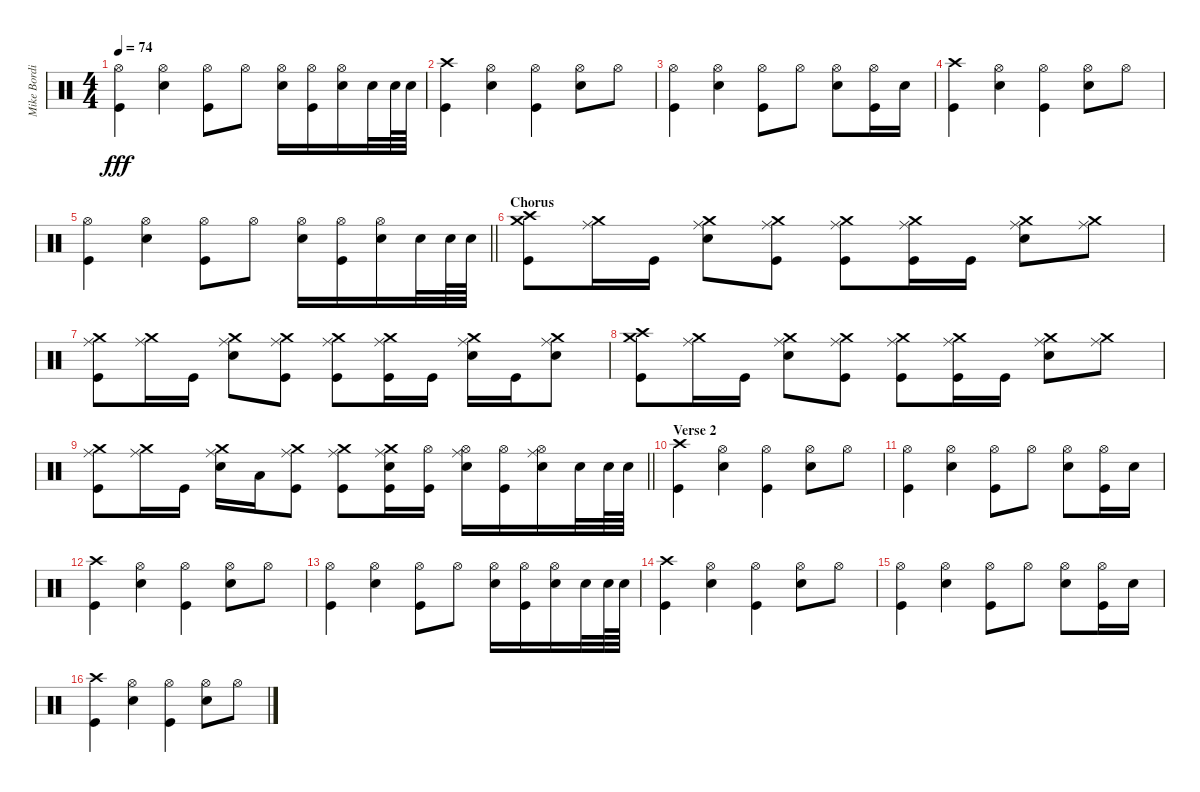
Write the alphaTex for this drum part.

\track ("Mike Bordin" "Mike Bordi") {instrument percussion}
\staff {score}
\articulation defaults
\ts (4 4)
\tempo 74
\clef neutral
\ks c
("Hi-Hat (open)" "Kick (hit)").4{dy fff} ("Hi-Hat (open)" "Snare (hit) 2").4 ("Hi-Hat (open)" "Kick (hit)").8 "Hi-Hat (open)".8 ("Hi-Hat (open)" "Snare (hit) 2").16 ("Hi-Hat (open)" "Kick (hit)").16 ("Hi-Hat (open)" "Snare (hit) 2").16 "Snare (hit) 2".32 "Snare (hit) 2".64 "Snare (hit) 2".64 |
("Crash high (hit)" "Kick (hit)").4 ("Hi-Hat (open)" "Snare (hit) 2").4 ("Hi-Hat (open)" "Kick (hit)").4 ("Hi-Hat (open)" "Snare (hit) 2").8 "Hi-Hat (open)".8 |
("Hi-Hat (open)" "Kick (hit)").4 ("Hi-Hat (open)" "Snare (hit) 2").4 ("Hi-Hat (open)" "Kick (hit)").8 "Hi-Hat (open)".8 ("Hi-Hat (open)" "Snare (hit) 2").8 ("Hi-Hat (open)" "Kick (hit)").16 "Snare (hit) 2".16 |
("Crash high (hit)" "Kick (hit)").4 ("Hi-Hat (open)" "Snare (hit) 2").4 ("Hi-Hat (open)" "Kick (hit)").4 ("Hi-Hat (open)" "Snare (hit) 2").8 "Hi-Hat (open)".8 |
\barLineRight lightlight
("Hi-Hat (open)" "Kick (hit)").4 ("Hi-Hat (open)" "Snare (hit) 2").4 ("Hi-Hat (open)" "Kick (hit)").8 "Hi-Hat (open)".8 ("Hi-Hat (open)" "Snare (hit) 2").16 ("Hi-Hat (open)" "Kick (hit)").16 ("Hi-Hat (open)" "Snare (hit) 2").16 "Snare (hit) 2".32 "Snare (hit) 2".64 "Snare (hit) 2".64 |
\section ("" "Chorus")
("Crash medium (hit)" "Crash high (hit)" "Kick (hit)").8 ("Crash medium (hit)" "Ride (middle)").16 "Kick (hit)".16 ("Crash medium (hit)" "Ride (middle)" "Snare (hit) 2").8 ("Crash medium (hit)" "Ride (middle)" "Kick (hit)").8 ("Crash medium (hit)" "Ride (middle)" "Kick (hit)").8 ("Crash medium (hit)" "Ride (middle)" "Kick (hit)").16 "Kick (hit)".16 ("Crash medium (hit)" "Ride (middle)" "Snare (hit) 2").8 ("Crash medium (hit)" "Ride (middle)").8 |
("Crash medium (hit)" "Ride (middle)" "Kick (hit)").8 ("Crash medium (hit)" "Ride (middle)").16 "Kick (hit)".16 ("Crash medium (hit)" "Ride (middle)" "Snare (hit) 2").8 ("Crash medium (hit)" "Ride (middle)" "Kick (hit)").8 ("Crash medium (hit)" "Ride (middle)" "Kick (hit)").8 ("Crash medium (hit)" "Ride (middle)" "Kick (hit)").16 "Kick (hit)".16 ("Crash medium (hit)" "Ride (middle)" "Snare (hit) 2").16 "Kick (hit)".16 ("Crash medium (hit)" "Ride (middle)" "Snare (hit) 2").8 |
("Crash medium (hit)" "Crash high (hit)" "Kick (hit)").8 ("Crash medium (hit)" "Ride (middle)").16 "Kick (hit)".16 ("Crash medium (hit)" "Ride (middle)" "Snare (hit) 2").8 ("Crash medium (hit)" "Ride (middle)" "Kick (hit)").8 ("Crash medium (hit)" "Ride (middle)" "Kick (hit)").8 ("Crash medium (hit)" "Ride (middle)" "Kick (hit)").16 "Kick (hit)".16 ("Crash medium (hit)" "Ride (middle)" "Snare (hit) 2").8 ("Crash medium (hit)" "Ride (middle)").8 |
\barLineRight lightlight
("Crash medium (hit)" "Ride (middle)" "Kick (hit)").8 ("Crash medium (hit)" "Ride (middle)").16 "Kick (hit)".16 ("Crash medium (hit)" "Ride (middle)" "Snare (hit) 2").16 "Low Tom (hit)".16 ("Crash medium (hit)" "Ride (middle)" "Kick (hit)").8 ("Crash medium (hit)" "Ride (middle)" "Kick (hit)").8 ("Crash medium (hit)" "Ride (middle)" "Snare (hit) 2" "Kick (hit)").16 ("Hi-Hat (open)" "Kick (hit)").16 ("Hi-Hat (open)" "Ride (middle)" "Snare (hit) 2").16 ("Hi-Hat (open)" "Kick (hit)").16 ("Hi-Hat (open)" "Ride (middle)" "Snare (hit) 2").16 "Snare (hit) 2".32 "Snare (hit) 2".64 "Snare (hit) 2".64 |
\section ("" "Verse 2")
("Crash high (hit)" "Kick (hit)").4 ("Hi-Hat (open)" "Snare (hit) 2").4 ("Hi-Hat (open)" "Kick (hit)").4 ("Hi-Hat (open)" "Snare (hit) 2").8 "Hi-Hat (open)".8 |
("Hi-Hat (open)" "Kick (hit)").4 ("Hi-Hat (open)" "Snare (hit) 2").4 ("Hi-Hat (open)" "Kick (hit)").8 "Hi-Hat (open)".8 ("Hi-Hat (open)" "Snare (hit) 2").8 ("Hi-Hat (open)" "Kick (hit)").16 "Snare (hit) 2".16 |
("Crash high (hit)" "Kick (hit)").4 ("Hi-Hat (open)" "Snare (hit) 2").4 ("Hi-Hat (open)" "Kick (hit)").4 ("Hi-Hat (open)" "Snare (hit) 2").8 "Hi-Hat (open)".8 |
("Hi-Hat (open)" "Kick (hit)").4 ("Hi-Hat (open)" "Snare (hit) 2").4 ("Hi-Hat (open)" "Kick (hit)").8 "Hi-Hat (open)".8 ("Hi-Hat (open)" "Snare (hit) 2").16 ("Hi-Hat (open)" "Kick (hit)").16 ("Hi-Hat (open)" "Snare (hit) 2").16 "Snare (hit) 2".32 "Snare (hit) 2".64 "Snare (hit) 2".64 |
("Crash high (hit)" "Kick (hit)").4 ("Hi-Hat (open)" "Snare (hit) 2").4 ("Hi-Hat (open)" "Kick (hit)").4 ("Hi-Hat (open)" "Snare (hit) 2").8 "Hi-Hat (open)".8 |
("Hi-Hat (open)" "Kick (hit)").4 ("Hi-Hat (open)" "Snare (hit) 2").4 ("Hi-Hat (open)" "Kick (hit)").8 "Hi-Hat (open)".8 ("Hi-Hat (open)" "Snare (hit) 2").8 ("Hi-Hat (open)" "Kick (hit)").16 "Snare (hit) 2".16 |
("Crash high (hit)" "Kick (hit)").4 ("Hi-Hat (open)" "Snare (hit) 2").4 ("Hi-Hat (open)" "Kick (hit)").4 ("Hi-Hat (open)" "Snare (hit) 2").8 "Hi-Hat (open)".8
